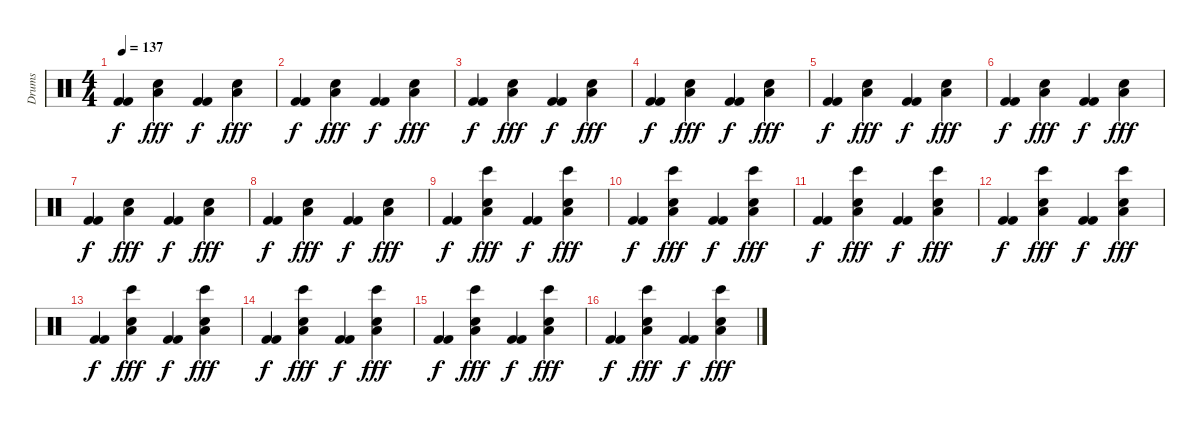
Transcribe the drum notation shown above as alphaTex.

\track ("Drums" "Drums") {instrument percussion}
\staff {score}
\articulation defaults
\ts (4 4)
\tempo 137
\clef neutral
\ks c
("Kick (hit) 2" "Kick (hit) 2").4{dy f volume 14} ("Electric Snare (hit)" "Low Floor Tom (hit)").4{dy fff} ("Kick (hit) 2" "Kick (hit) 2").4{dy f} ("Electric Snare (hit)" "Low Floor Tom (hit)").4{dy fff} |
("Kick (hit) 2" "Kick (hit) 2").4{dy f} ("Electric Snare (hit)" "Low Floor Tom (hit)").4{dy fff} ("Kick (hit) 2" "Kick (hit) 2").4{dy f} ("Electric Snare (hit)" "Low Floor Tom (hit)").4{dy fff} |
("Kick (hit) 2" "Kick (hit) 2").4{dy f} ("Electric Snare (hit)" "Low Floor Tom (hit)").4{dy fff} ("Kick (hit) 2" "Kick (hit) 2").4{dy f} ("Electric Snare (hit)" "Low Floor Tom (hit)").4{dy fff} |
("Kick (hit) 2" "Kick (hit) 2").4{dy f} ("Electric Snare (hit)" "Low Floor Tom (hit)").4{dy fff} ("Kick (hit) 2" "Kick (hit) 2").4{dy f} ("Electric Snare (hit)" "Low Floor Tom (hit)").4{dy fff} |
("Kick (hit) 2" "Kick (hit) 2").4{dy f} ("Electric Snare (hit)" "Low Floor Tom (hit)").4{dy fff} ("Kick (hit) 2" "Kick (hit) 2").4{dy f} ("Electric Snare (hit)" "Low Floor Tom (hit)").4{dy fff} |
("Kick (hit) 2" "Kick (hit) 2").4{dy f} ("Electric Snare (hit)" "Low Floor Tom (hit)").4{dy fff} ("Kick (hit) 2" "Kick (hit) 2").4{dy f} ("Electric Snare (hit)" "Low Floor Tom (hit)").4{dy fff} |
("Kick (hit) 2" "Kick (hit) 2").4{dy f} ("Electric Snare (hit)" "Low Floor Tom (hit)").4{dy fff} ("Kick (hit) 2" "Kick (hit) 2").4{dy f} ("Electric Snare (hit)" "Low Floor Tom (hit)").4{dy fff} |
("Kick (hit) 2" "Kick (hit) 2").4{dy f} ("Electric Snare (hit)" "Low Floor Tom (hit)").4{dy fff} ("Kick (hit) 2" "Kick (hit) 2").4{dy f} ("Electric Snare (hit)" "Low Floor Tom (hit)").4{dy fff} |
("Kick (hit) 2" "Kick (hit) 2").4{dy f volume 14} ("Electric Snare (hit)" "Bongo High (hit)" "Low Floor Tom (hit)").4{dy fff} ("Kick (hit) 2" "Kick (hit) 2").4{dy f} ("Electric Snare (hit)" "Bongo High (hit)" "Low Floor Tom (hit)").4{dy fff} |
("Kick (hit) 2" "Kick (hit) 2").4{dy f volume 14} ("Electric Snare (hit)" "Bongo High (hit)" "Low Floor Tom (hit)").4{dy fff} ("Kick (hit) 2" "Kick (hit) 2").4{dy f} ("Electric Snare (hit)" "Bongo High (hit)" "Low Floor Tom (hit)").4{dy fff} |
("Kick (hit) 2" "Kick (hit) 2").4{dy f volume 14} ("Electric Snare (hit)" "Bongo High (hit)" "Low Floor Tom (hit)").4{dy fff} ("Kick (hit) 2" "Kick (hit) 2").4{dy f} ("Electric Snare (hit)" "Bongo High (hit)" "Low Floor Tom (hit)").4{dy fff} |
("Kick (hit) 2" "Kick (hit) 2").4{dy f volume 14} ("Electric Snare (hit)" "Bongo High (hit)" "Low Floor Tom (hit)").4{dy fff} ("Kick (hit) 2" "Kick (hit) 2").4{dy f} ("Electric Snare (hit)" "Bongo High (hit)" "Low Floor Tom (hit)").4{dy fff} |
("Kick (hit) 2" "Kick (hit) 2").4{dy f volume 14} ("Electric Snare (hit)" "Bongo High (hit)" "Low Floor Tom (hit)").4{dy fff} ("Kick (hit) 2" "Kick (hit) 2").4{dy f} ("Electric Snare (hit)" "Bongo High (hit)" "Low Floor Tom (hit)").4{dy fff} |
("Kick (hit) 2" "Kick (hit) 2").4{dy f volume 14} ("Electric Snare (hit)" "Bongo High (hit)" "Low Floor Tom (hit)").4{dy fff} ("Kick (hit) 2" "Kick (hit) 2").4{dy f} ("Electric Snare (hit)" "Bongo High (hit)" "Low Floor Tom (hit)").4{dy fff} |
("Kick (hit) 2" "Kick (hit) 2").4{dy f volume 14} ("Electric Snare (hit)" "Bongo High (hit)" "Low Floor Tom (hit)").4{dy fff} ("Kick (hit) 2" "Kick (hit) 2").4{dy f} ("Electric Snare (hit)" "Bongo High (hit)" "Low Floor Tom (hit)").4{dy fff} |
("Kick (hit) 2" "Kick (hit) 2").4{dy f volume 14} ("Electric Snare (hit)" "Bongo High (hit)" "Low Floor Tom (hit)").4{dy fff} ("Kick (hit) 2" "Kick (hit) 2").4{dy f} ("Electric Snare (hit)" "Bongo High (hit)" "Low Floor Tom (hit)").4{dy fff}
